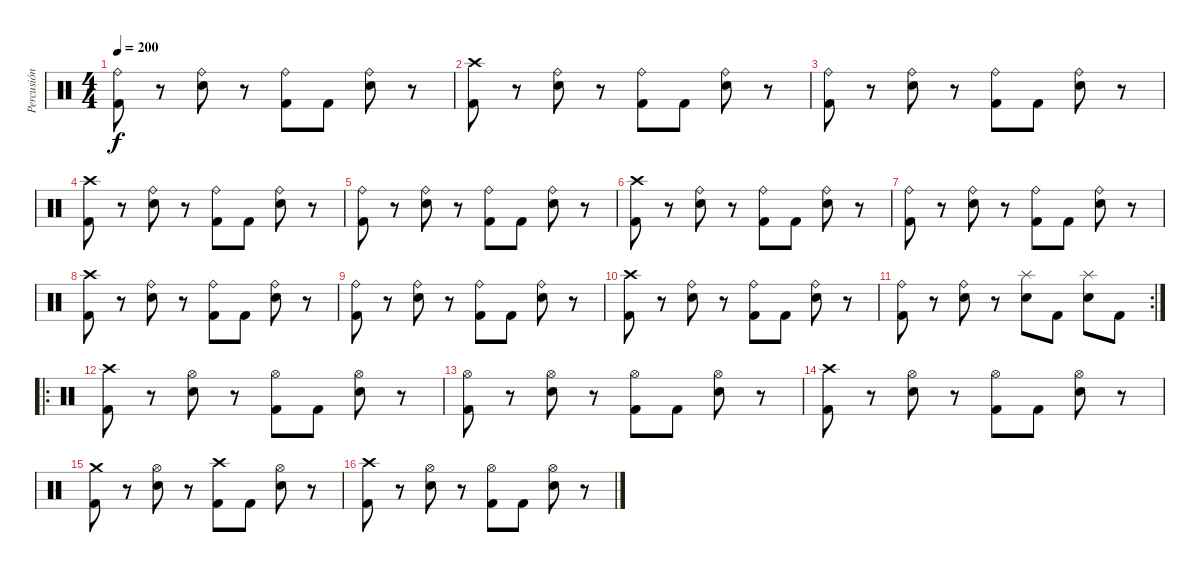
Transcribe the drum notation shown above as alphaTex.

\track ("Percusión" "Percusión") {instrument percussion}
\staff {score}
\articulation defaults
\ts (4 4)
\tempo 200
\clef neutral
\ks c
("Ride (bell)" "Kick (hit) 2").8{dy f} r.8 ("Ride (bell)" "Electric Snare (hit)").8 r.8 ("Ride (bell)" "Kick (hit) 2").8 "Kick (hit) 2".8 ("Ride (bell)" "Electric Snare (hit)").8 r.8 |
("Crash high (hit)" "Kick (hit) 2").8 r.8 ("Ride (bell)" "Electric Snare (hit)").8 r.8 ("Ride (bell)" "Kick (hit) 2").8 "Kick (hit) 2".8 ("Ride (bell)" "Electric Snare (hit)").8 r.8 |
("Ride (bell)" "Kick (hit) 2").8 r.8 ("Ride (bell)" "Electric Snare (hit)").8 r.8 ("Ride (bell)" "Kick (hit) 2").8 "Kick (hit) 2".8 ("Ride (bell)" "Electric Snare (hit)").8 r.8 |
("Crash high (hit)" "Kick (hit) 2").8 r.8 ("Ride (bell)" "Electric Snare (hit)").8 r.8 ("Ride (bell)" "Kick (hit) 2").8 "Kick (hit) 2".8 ("Ride (bell)" "Electric Snare (hit)").8 r.8 |
("Ride (bell)" "Kick (hit) 2").8 r.8 ("Ride (bell)" "Electric Snare (hit)").8 r.8 ("Ride (bell)" "Kick (hit) 2").8 "Kick (hit) 2".8 ("Ride (bell)" "Electric Snare (hit)").8 r.8 |
("Crash high (hit)" "Kick (hit) 2").8 r.8 ("Ride (bell)" "Electric Snare (hit)").8 r.8 ("Ride (bell)" "Kick (hit) 2").8 "Kick (hit) 2".8 ("Ride (bell)" "Electric Snare (hit)").8 r.8 |
("Ride (bell)" "Kick (hit) 2").8 r.8 ("Ride (bell)" "Electric Snare (hit)").8 r.8 ("Ride (bell)" "Kick (hit) 2").8 "Kick (hit) 2".8 ("Ride (bell)" "Electric Snare (hit)").8 r.8 |
("Crash high (hit)" "Kick (hit) 2").8 r.8 ("Ride (bell)" "Electric Snare (hit)").8 r.8 ("Ride (bell)" "Kick (hit) 2").8 "Kick (hit) 2".8 ("Ride (bell)" "Electric Snare (hit)").8 r.8 |
("Ride (bell)" "Kick (hit) 2").8 r.8 ("Ride (bell)" "Electric Snare (hit)").8 r.8 ("Ride (bell)" "Kick (hit) 2").8 "Kick (hit) 2".8 ("Ride (bell)" "Electric Snare (hit)").8 r.8 |
("Crash high (hit)" "Kick (hit) 2").8 r.8 ("Ride (bell)" "Electric Snare (hit)").8 r.8 ("Ride (bell)" "Kick (hit) 2").8 "Kick (hit) 2".8 ("Ride (bell)" "Electric Snare (hit)").8 r.8 |
\rc 2
("Ride (bell)" "Kick (hit) 2").8 r.8 ("Ride (bell)" "Electric Snare (hit)").8 r.8 ("Splash (hit)" "Electric Snare (hit)").8 "Kick (hit) 2".8 ("Splash (hit)" "Electric Snare (hit)").8 "Kick (hit) 2".8 |
\ro
("Crash high (hit)" "Kick (hit) 2").8 r.8 ("Hi-Hat (open)" "Electric Snare (hit)").8 r.8 ("Hi-Hat (open)" "Kick (hit) 2").8 "Kick (hit) 2".8 ("Hi-Hat (open)" "Electric Snare (hit)").8 r.8 |
("Hi-Hat (open)" "Kick (hit) 2").8 r.8 ("Hi-Hat (open)" "Electric Snare (hit)").8 r.8 ("Hi-Hat (open)" "Kick (hit) 2").8 "Kick (hit) 2".8 ("Hi-Hat (open)" "Electric Snare (hit)").8 r.8 |
("Crash high (hit)" "Kick (hit) 2").8 r.8 ("Hi-Hat (open)" "Electric Snare (hit)").8 r.8 ("Hi-Hat (open)" "Kick (hit) 2").8 "Kick (hit) 2".8 ("Hi-Hat (open)" "Electric Snare (hit)").8 r.8 |
("Crash medium (hit)" "Kick (hit) 2").8 r.8 ("Hi-Hat (open)" "Electric Snare (hit)").8 r.8 ("Crash high (hit)" "Kick (hit) 2").8 "Kick (hit) 2".8 ("Hi-Hat (open)" "Electric Snare (hit)").8 r.8 |
("Crash high (hit)" "Kick (hit) 2").8 r.8 ("Hi-Hat (open)" "Electric Snare (hit)").8 r.8 ("Hi-Hat (open)" "Kick (hit) 2").8 "Kick (hit) 2".8 ("Hi-Hat (open)" "Electric Snare (hit)").8 r.8
